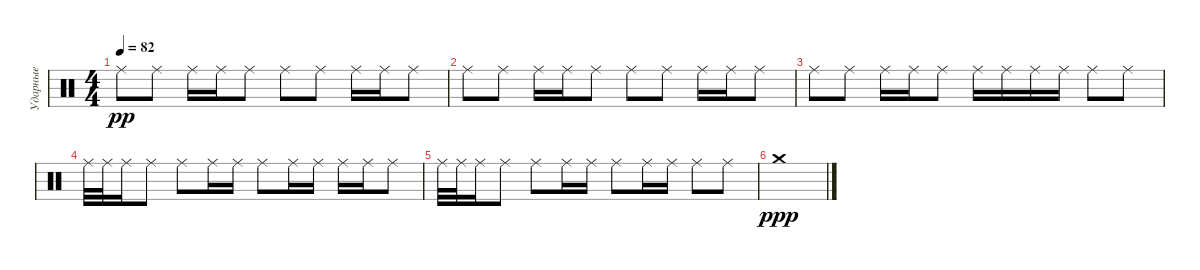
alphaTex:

\track ("Ударные" "Ударные") {mute instrument percussion}
\staff {score}
\articulation defaults
\ts (4 4)
\tempo 82
\clef neutral
\ks c "Ride (middle)".8{dy pp} "Ride (middle)".8 "Ride (middle)".16 "Ride (middle)".16 "Ride (middle)".8 "Ride (middle)".8 "Ride (middle)".8 "Ride (middle)".16 "Ride (middle)".16 "Ride (middle)".8
|
"Ride (middle)".8 "Ride (middle)".8 "Ride (middle)".16 "Ride (middle)".16 "Ride (middle)".8 "Ride (middle)".8 "Ride (middle)".8 "Ride (middle)".16 "Ride (middle)".16 "Ride (middle)".8 |
"Ride (middle)".8 "Ride (middle)".8 "Ride (middle)".16 "Ride (middle)".16 "Ride (middle)".8 "Ride (middle)".16 "Ride (middle)".16 "Ride (middle)".16 "Ride (middle)".16 "Ride (middle)".8 "Ride (middle)".8 |
"Ride (middle)".32 "Ride (middle)".32 "Ride (middle)".16 "Ride (middle)".8 "Ride (middle)".8 "Ride (middle)".16 "Ride (middle)".16 "Ride (middle)".8 "Ride (middle)".16 "Ride (middle)".16 "Ride (middle)".16 "Ride (middle)".16 "Ride (middle)".8 |
"Ride (middle)".32 "Ride (middle)".32 "Ride (middle)".16 "Ride (middle)".8 "Ride (middle)".8 "Ride (middle)".16 "Ride (middle)".16 "Ride (middle)".8 "Ride (middle)".16 "Ride (middle)".16 "Ride (middle)".8 "Ride (middle)".8 |
"Crash medium (hit)".1{dy ppp}
